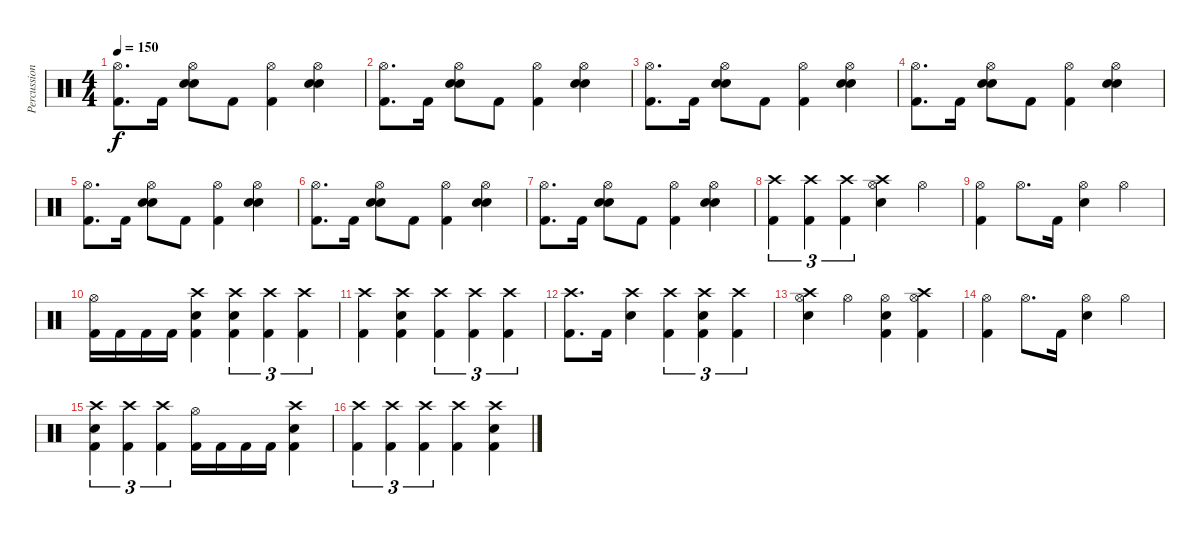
\track ("Percussion" "Percussion") {instrument percussion}
\staff {score}
\articulation defaults
\ts (4 4)
\tempo 150
\clef neutral
\ks c
("Hi-Hat (open)" "Kick (hit) 2").8{d dy f} "Kick (hit) 2".16 ("Hi-Hat (open)" "Snare (hit) 2" "Snare (hit) 2").8 "Kick (hit) 2".8 ("Hi-Hat (open)" "Kick (hit) 2").4 ("Hi-Hat (open)" "Snare (hit) 2" "Snare (hit) 2").4 |
("Hi-Hat (open)" "Kick (hit) 2").8{d} "Kick (hit) 2".16 ("Hi-Hat (open)" "Snare (hit) 2" "Snare (hit) 2").8 "Kick (hit) 2".8 ("Hi-Hat (open)" "Kick (hit) 2").4 ("Hi-Hat (open)" "Snare (hit) 2" "Snare (hit) 2").4 |
("Hi-Hat (open)" "Kick (hit) 2").8{d} "Kick (hit) 2".16 ("Hi-Hat (open)" "Snare (hit) 2" "Snare (hit) 2").8 "Kick (hit) 2".8 ("Hi-Hat (open)" "Kick (hit) 2").4 ("Hi-Hat (open)" "Snare (hit) 2" "Snare (hit) 2").4 |
("Hi-Hat (open)" "Kick (hit) 2").8{d} "Kick (hit) 2".16 ("Hi-Hat (open)" "Snare (hit) 2" "Snare (hit) 2").8 "Kick (hit) 2".8 ("Hi-Hat (open)" "Kick (hit) 2").4 ("Hi-Hat (open)" "Snare (hit) 2" "Snare (hit) 2").4 |
("Hi-Hat (open)" "Kick (hit) 2").8{d} "Kick (hit) 2".16 ("Hi-Hat (open)" "Snare (hit) 2" "Snare (hit) 2").8 "Kick (hit) 2".8 ("Hi-Hat (open)" "Kick (hit) 2").4 ("Hi-Hat (open)" "Snare (hit) 2" "Snare (hit) 2").4 |
("Hi-Hat (open)" "Kick (hit) 2").8{d} "Kick (hit) 2".16 ("Hi-Hat (open)" "Snare (hit) 2" "Snare (hit) 2").8 "Kick (hit) 2".8 ("Hi-Hat (open)" "Kick (hit) 2").4 ("Hi-Hat (open)" "Snare (hit) 2" "Snare (hit) 2").4 |
("Hi-Hat (open)" "Kick (hit) 2").8{d} "Kick (hit) 2".16 ("Hi-Hat (open)" "Snare (hit) 2" "Snare (hit) 2").8 "Kick (hit) 2".8 ("Hi-Hat (open)" "Kick (hit) 2").4 ("Hi-Hat (open)" "Snare (hit) 2" "Snare (hit) 2").4 |
("Crash high (hit)" "Kick (hit) 2").4{tu (3 2)} ("Crash high (hit)" "Kick (hit) 2").4{tu (3 2)} ("Crash high (hit)" "Kick (hit) 2").4{tu (3 2)} ("Crash high (hit)" "Hi-Hat (open)" "Snare (hit) 2").4 "Hi-Hat (open)".4 |
("Hi-Hat (open)" "Kick (hit) 2").4 "Hi-Hat (open)".8{d} "Kick (hit) 2".16 ("Hi-Hat (open)" "Snare (hit) 2").4 "Hi-Hat (open)".4 |
("Hi-Hat (open)" "Kick (hit) 2").16 "Kick (hit) 2".16 "Kick (hit) 2".16 "Kick (hit) 2".16 ("Crash high (hit)" "Snare (hit) 2" "Kick (hit) 2").4 ("Crash high (hit)" "Snare (hit) 2" "Kick (hit) 2").4{tu (3 2)} ("Crash high (hit)" "Kick (hit) 2").4{tu (3 2)} ("Crash high (hit)" "Kick (hit) 2").4{tu (3 2)} |
("Crash high (hit)" "Kick (hit) 2").4 ("Crash high (hit)" "Snare (hit) 2" "Kick (hit) 2").4 ("Crash high (hit)" "Kick (hit) 2").4{tu (3 2)} ("Crash high (hit)" "Kick (hit) 2").4{tu (3 2)} ("Crash high (hit)" "Kick (hit) 2").4{tu (3 2)} |
("Crash high (hit)" "Kick (hit) 2").8{d} "Kick (hit) 2".16 ("Crash high (hit)" "Snare (hit) 2").4 ("Crash high (hit)" "Kick (hit) 2").4{tu (3 2)} ("Crash high (hit)" "Snare (hit) 2" "Kick (hit) 2").4{tu (3 2)} ("Crash high (hit)" "Kick (hit) 2").4{tu (3 2)} |
("Crash high (hit)" "Hi-Hat (open)" "Snare (hit) 2").4 "Hi-Hat (open)".4 ("Hi-Hat (open)" "Snare (hit) 2" "Kick (hit) 2").4 ("Crash high (hit)" "Hi-Hat (open)" "Kick (hit) 2").4 |
("Hi-Hat (open)" "Kick (hit) 2").4 "Hi-Hat (open)".8{d} "Kick (hit) 2".16 ("Hi-Hat (open)" "Snare (hit) 2").4 "Hi-Hat (open)".4 |
("Crash high (hit)" "Snare (hit) 2" "Kick (hit) 2").4{tu (3 2)} ("Crash high (hit)" "Kick (hit) 2").4{tu (3 2)} ("Crash high (hit)" "Kick (hit) 2").4{tu (3 2)} ("Hi-Hat (open)" "Kick (hit) 2").16 "Kick (hit) 2".16 "Kick (hit) 2".16 "Kick (hit) 2".16 ("Crash high (hit)" "Snare (hit) 2" "Kick (hit) 2").4 |
("Crash high (hit)" "Kick (hit) 2").4{tu (3 2)} ("Crash high (hit)" "Kick (hit) 2").4{tu (3 2)} ("Crash high (hit)" "Kick (hit) 2").4{tu (3 2)} ("Crash high (hit)" "Kick (hit) 2").4 ("Crash high (hit)" "Snare (hit) 2" "Kick (hit) 2").4
